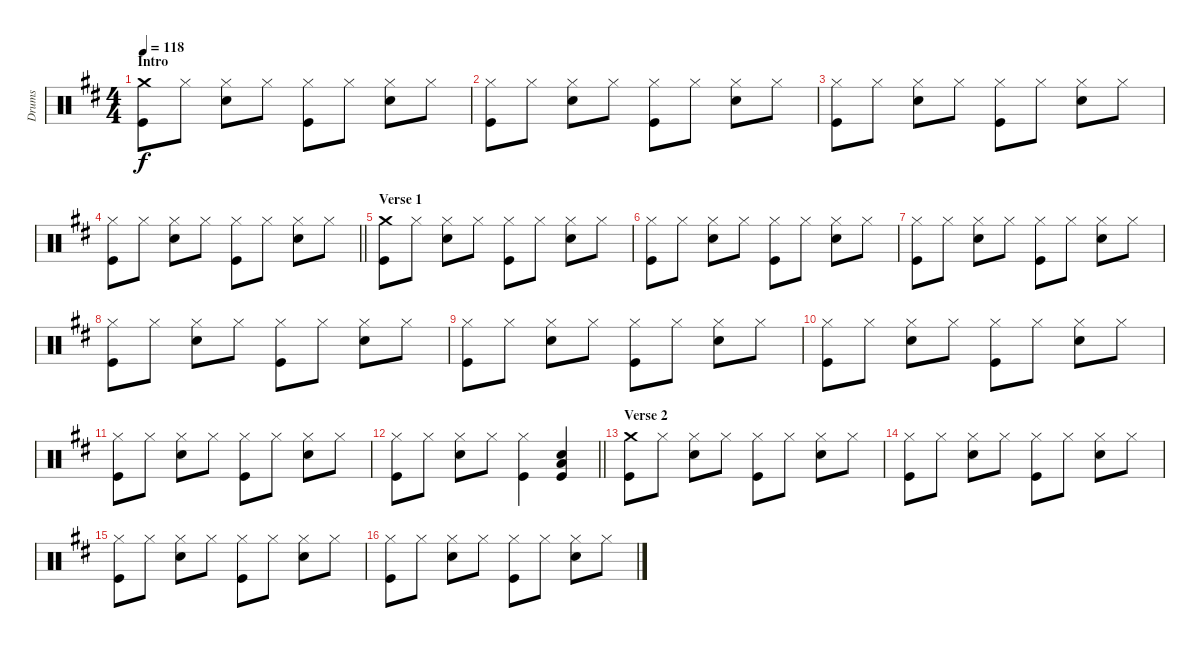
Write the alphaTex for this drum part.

\track ("Drums" "Drums") {instrument percussion}
\staff {score}
\articulation defaults
\ts (4 4)
\section ("" "Intro")
\tempo 118
\clef neutral
\ks d
("Crash medium (hit)" "Kick (hit)").8{dy f} "Hi-Hat (closed)".8 ("Hi-Hat (closed)" "Electric Snare (hit)").8 "Hi-Hat (closed)".8 ("Hi-Hat (closed)" "Kick (hit)").8 "Hi-Hat (closed)".8 ("Hi-Hat (closed)" "Electric Snare (hit)").8 "Hi-Hat (closed)".8 |
("Hi-Hat (closed)" "Kick (hit)").8 "Hi-Hat (closed)".8 ("Hi-Hat (closed)" "Electric Snare (hit)").8 "Hi-Hat (closed)".8 ("Hi-Hat (closed)" "Kick (hit)").8 "Hi-Hat (closed)".8 ("Hi-Hat (closed)" "Electric Snare (hit)").8 "Hi-Hat (closed)".8 |
("Hi-Hat (closed)" "Kick (hit)").8 "Hi-Hat (closed)".8 ("Hi-Hat (closed)" "Electric Snare (hit)").8 "Hi-Hat (closed)".8 ("Hi-Hat (closed)" "Kick (hit)").8 "Hi-Hat (closed)".8 ("Hi-Hat (closed)" "Electric Snare (hit)").8 "Hi-Hat (closed)".8 |
\barLineRight lightlight
("Hi-Hat (closed)" "Kick (hit)").8 "Hi-Hat (closed)".8 ("Hi-Hat (closed)" "Electric Snare (hit)").8 "Hi-Hat (closed)".8 ("Hi-Hat (closed)" "Kick (hit)").8 "Hi-Hat (closed)".8 ("Hi-Hat (closed)" "Electric Snare (hit)").8 "Hi-Hat (closed)".8 |
\section ("" "Verse 1")
("Crash medium (hit)" "Kick (hit)").8 "Hi-Hat (closed)".8 ("Hi-Hat (closed)" "Electric Snare (hit)").8 "Hi-Hat (closed)".8 ("Hi-Hat (closed)" "Kick (hit)").8 "Hi-Hat (closed)".8 ("Hi-Hat (closed)" "Electric Snare (hit)").8 "Hi-Hat (closed)".8 |
("Hi-Hat (closed)" "Kick (hit)").8 "Hi-Hat (closed)".8 ("Hi-Hat (closed)" "Electric Snare (hit)").8 "Hi-Hat (closed)".8 ("Hi-Hat (closed)" "Kick (hit)").8 "Hi-Hat (closed)".8 ("Hi-Hat (closed)" "Electric Snare (hit)").8 "Hi-Hat (closed)".8 |
("Hi-Hat (closed)" "Kick (hit)").8 "Hi-Hat (closed)".8 ("Hi-Hat (closed)" "Electric Snare (hit)").8 "Hi-Hat (closed)".8 ("Hi-Hat (closed)" "Kick (hit)").8 "Hi-Hat (closed)".8 ("Hi-Hat (closed)" "Electric Snare (hit)").8 "Hi-Hat (closed)".8 |
("Hi-Hat (closed)" "Kick (hit)").8 "Hi-Hat (closed)".8 ("Hi-Hat (closed)" "Electric Snare (hit)").8 "Hi-Hat (closed)".8 ("Hi-Hat (closed)" "Kick (hit)").8 "Hi-Hat (closed)".8 ("Hi-Hat (closed)" "Electric Snare (hit)").8 "Hi-Hat (closed)".8 |
("Hi-Hat (closed)" "Kick (hit)").8 "Hi-Hat (closed)".8 ("Hi-Hat (closed)" "Electric Snare (hit)").8 "Hi-Hat (closed)".8 ("Hi-Hat (closed)" "Kick (hit)").8 "Hi-Hat (closed)".8 ("Hi-Hat (closed)" "Electric Snare (hit)").8 "Hi-Hat (closed)".8 |
("Hi-Hat (closed)" "Kick (hit)").8 "Hi-Hat (closed)".8 ("Hi-Hat (closed)" "Electric Snare (hit)").8 "Hi-Hat (closed)".8 ("Hi-Hat (closed)" "Kick (hit)").8 "Hi-Hat (closed)".8 ("Hi-Hat (closed)" "Electric Snare (hit)").8 "Hi-Hat (closed)".8 |
("Hi-Hat (closed)" "Kick (hit)").8 "Hi-Hat (closed)".8 ("Hi-Hat (closed)" "Electric Snare (hit)").8 "Hi-Hat (closed)".8 ("Hi-Hat (closed)" "Kick (hit)").8 "Hi-Hat (closed)".8 ("Hi-Hat (closed)" "Electric Snare (hit)").8 "Hi-Hat (closed)".8 |
\barLineRight lightlight
("Hi-Hat (closed)" "Kick (hit)").8 "Hi-Hat (closed)".8 ("Hi-Hat (closed)" "Electric Snare (hit)").8 "Hi-Hat (closed)".8 ("Hi-Hat (closed)" "Kick (hit)").4 ("Electric Snare (hit)" "Low Tom (hit)" "Kick (hit)").4 |
\section ("" "Verse 2")
("Crash medium (hit)" "Kick (hit)").8 "Hi-Hat (closed)".8 ("Hi-Hat (closed)" "Electric Snare (hit)").8 "Hi-Hat (closed)".8 ("Hi-Hat (closed)" "Kick (hit)").8 "Hi-Hat (closed)".8 ("Hi-Hat (closed)" "Electric Snare (hit)").8 "Hi-Hat (closed)".8 |
("Hi-Hat (closed)" "Kick (hit)").8 "Hi-Hat (closed)".8 ("Hi-Hat (closed)" "Electric Snare (hit)").8 "Hi-Hat (closed)".8 ("Hi-Hat (closed)" "Kick (hit)").8 "Hi-Hat (closed)".8 ("Hi-Hat (closed)" "Electric Snare (hit)").8 "Hi-Hat (closed)".8 |
("Hi-Hat (closed)" "Kick (hit)").8 "Hi-Hat (closed)".8 ("Hi-Hat (closed)" "Electric Snare (hit)").8 "Hi-Hat (closed)".8 ("Hi-Hat (closed)" "Kick (hit)").8 "Hi-Hat (closed)".8 ("Hi-Hat (closed)" "Electric Snare (hit)").8 "Hi-Hat (closed)".8 |
("Hi-Hat (closed)" "Kick (hit)").8 "Hi-Hat (closed)".8 ("Hi-Hat (closed)" "Electric Snare (hit)").8 "Hi-Hat (closed)".8 ("Hi-Hat (closed)" "Kick (hit)").8 "Hi-Hat (closed)".8 ("Hi-Hat (closed)" "Electric Snare (hit)").8 "Hi-Hat (closed)".8
